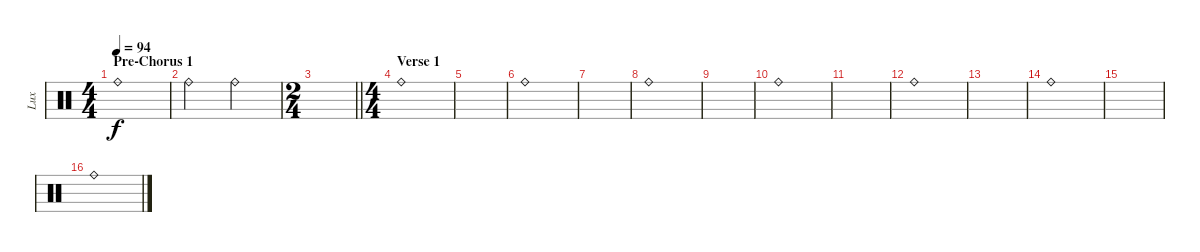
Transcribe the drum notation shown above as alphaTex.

\track ("Lux" "Lux") {instrument percussion}
\staff {score}
\articulation defaults
\ts (4 4)
\section ("" "Pre-Chorus 1")
\tempo 94
\clef neutral
\ks c "Ride (bell)".1{dy f}
|
"Ride (bell)".2 "Ride (bell)".2 |
\ts (2 4)
\barLineRight lightlight
|
\ts (4 4)
\section ("" "Verse 1")
"Ride (bell)".1 |
|
"Ride (bell)".1 |
|
"Ride (bell)".1 |
|
"Ride (bell)".1 |
|
"Ride (bell)".1 |
|
"Ride (bell)".1 |
|
"Ride (bell)".1
